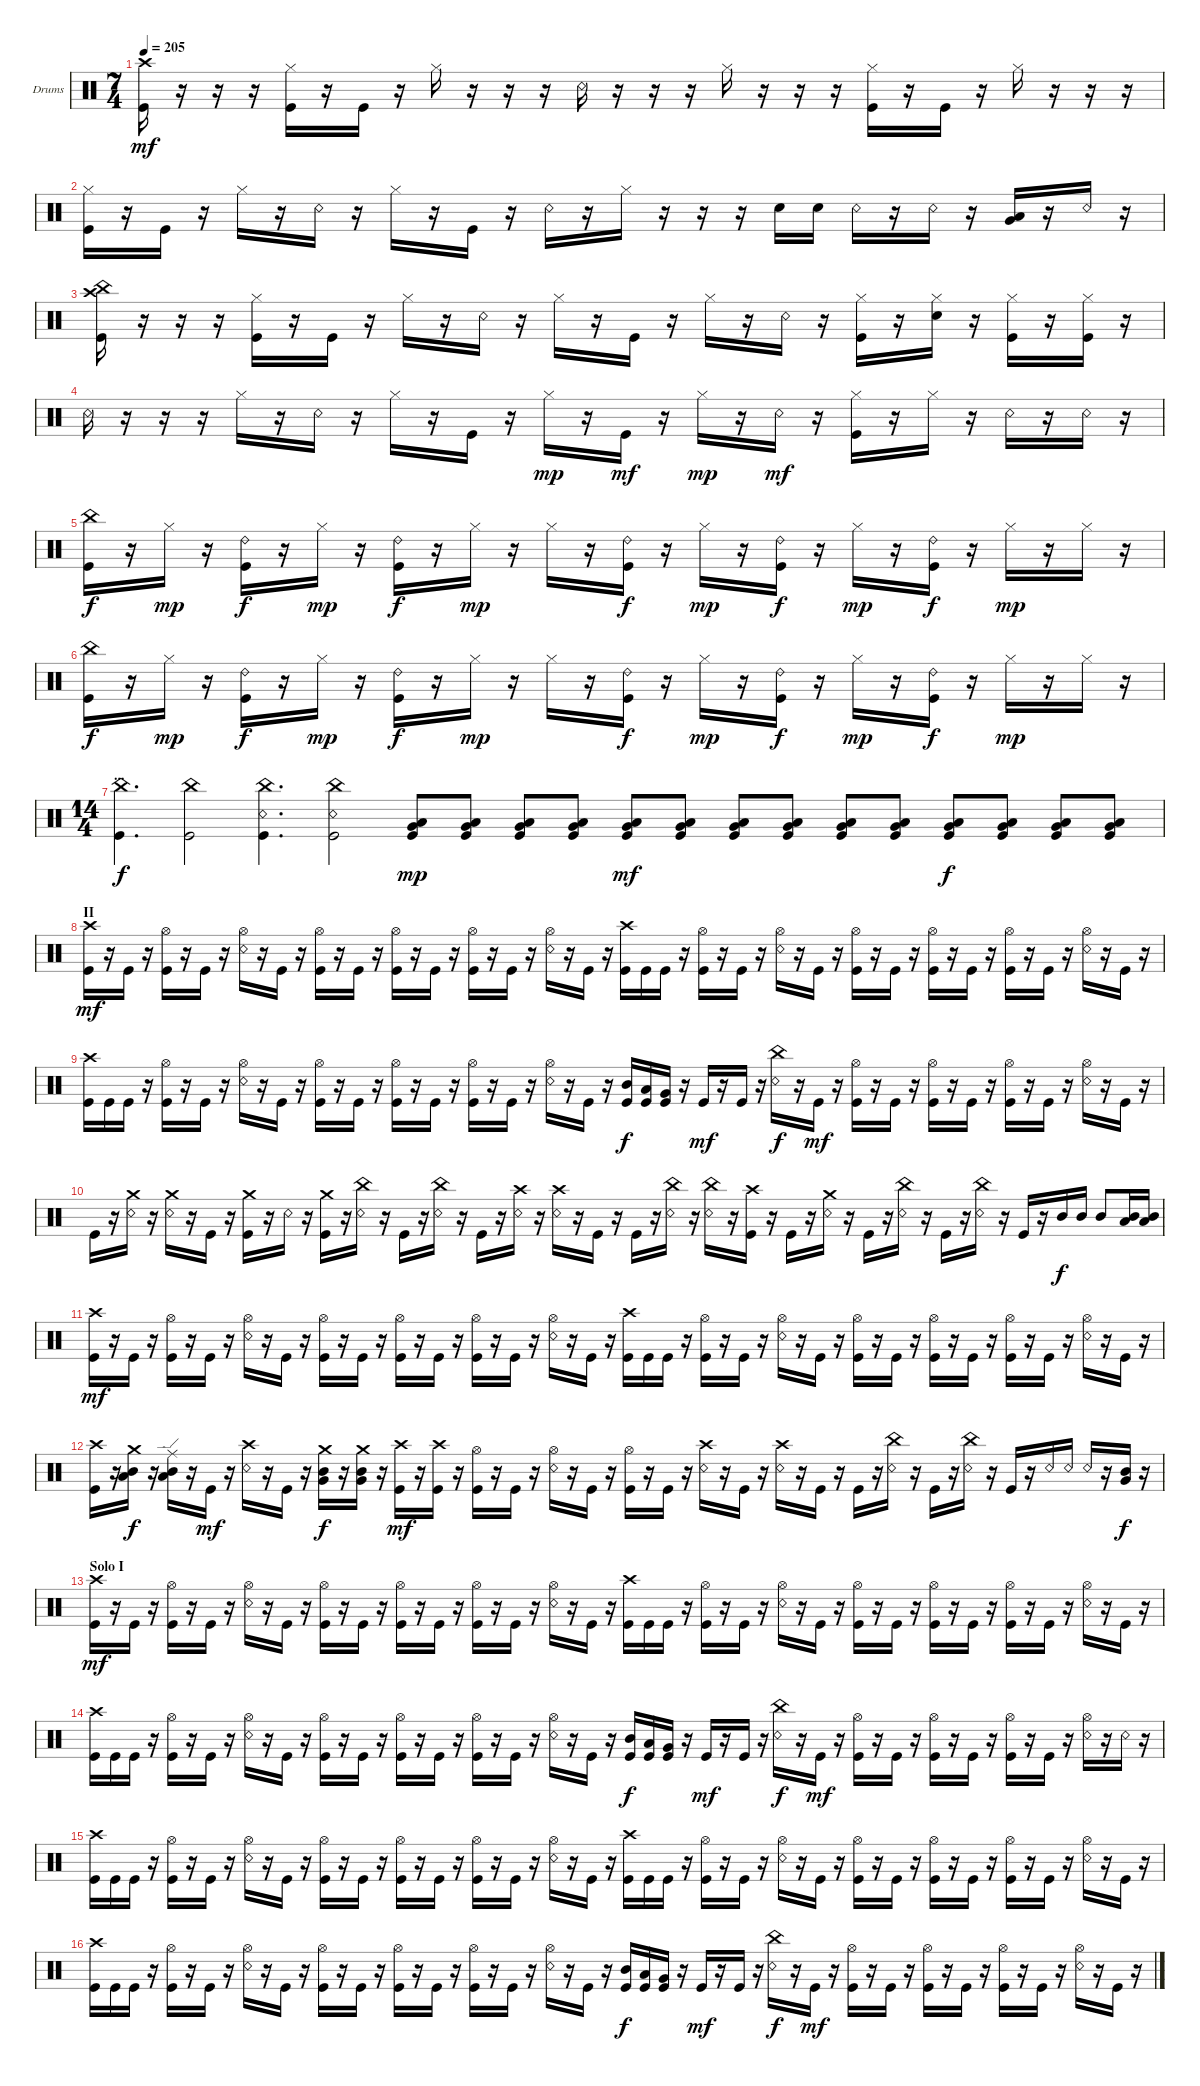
\defaultSystemsLayout 4
\bracketExtendMode groupsimilarinstruments
\firstSystemTrackNameOrientation horizontal
\otherSystemsTrackNameOrientation horizontal
\track ("Drumkit" "Drums") {instrument percussion}
\staff {score}
\articulation defaults
\ts (7 4)
\tempo 205
\clef neutral
\scale
0.487691
\ks c
("Kick (hit)" "Crash high (hit)").16{dy mf} r.16 r.16 r.16 ("Kick (hit)" "Hi-Hat (closed)").16 r.16 "Kick (hit)".16 r.16 "Hi-Hat (closed)".16 r.16 r.16 r.16 "Snare (rim shot)".16 r.16 r.16 r.16 "Hi-Hat (closed)".16 r.16 r.16 r.16 ("Kick (hit)" "Hi-Hat (closed)").16 r.16 "Kick (hit)".16 r.16 "Hi-Hat (closed)".16 r.16 r.16 r.16 |
("Kick (hit)" "Hi-Hat (closed)").16 r.16 "Kick (hit)".16 r.16 "Hi-Hat (closed)".16 r.16 "Snare (rim shot)".16 r.16 "Hi-Hat (closed)".16 r.16 "Kick (hit)".16 r.16 "Snare (rim shot)".16 r.16 "Hi-Hat (closed)".16 r.16 r.16 r.16 "Snare (hit) 2".16 "Snare (hit) 2".16 "Snare (rim shot)".16 r.16 "Snare (rim shot)".16 r.16 ("Very Low Tom (hit)" "Low Tom (hit)").16 r.16 "Snare (rim shot)".16 r.16 |
("Kick (hit)" "China (hit)" "Crash high (hit)").16 r.16 r.16 r.16 ("Hi-Hat (closed)" "Kick (hit)").16 r.16 "Kick (hit)".16 r.16 "Hi-Hat (closed)".16 r.16 "Snare (rim shot)".16 r.16 "Hi-Hat (closed)".16 r.16 "Kick (hit)".16 r.16 "Hi-Hat (closed)".16 r.16 "Snare (rim shot)".16 r.16 ("Kick (hit)" "Hi-Hat (closed)").16 r.16 ("Hi-Hat (closed)" "Snare (hit) 2").16 r.16 ("Kick (hit)" "Hi-Hat (closed)").16 r.16 ("Kick (hit)" "Hi-Hat (closed)").16 r.16 |
"Snare (rim shot)".16 r.16 r.16 r.16 "Hi-Hat (closed)".16 r.16 "Snare (rim shot)".16 r.16 "Hi-Hat (closed)".16 r.16 "Kick (hit)".16 r.16 "Hi-Hat (closed)".16{dy mp} r.16 "Kick (hit)".16{dy mf} r.16 "Hi-Hat (closed)".16{dy mp} r.16 "Snare (rim shot)".16{dy mf} r.16 ("Kick (hit)" "Hi-Hat (closed)").16 r.16 "Hi-Hat (closed)".16 r.16 "Snare (rim shot)".16 r.16 "Snare (rim shot)".16 r.16 |
("China (hit)" "Kick (hit)").16{dy f} r.16 "Hi-Hat (closed)".16{dy mp} r.16 ("Kick (hit)" "Ride (bell) 2").16{dy f} r.16 "Hi-Hat (closed)".16{dy mp} r.16 ("Kick (hit)" "Ride (bell) 2").16{dy f} r.16 "Hi-Hat (closed)".16{dy mp} r.16 "Hi-Hat (closed)".16 r.16 ("Kick (hit)" "Ride (bell) 2").16{dy f} r.16 "Hi-Hat (closed)".16{dy mp} r.16 ("Kick (hit)" "Ride (bell) 2").16{dy f} r.16 "Hi-Hat (closed)".16{dy mp} r.16 ("Kick (hit)" "Ride (bell) 2").16{dy f} r.16 "Hi-Hat (closed)".16{dy mp} r.16 "Hi-Hat (closed)".16 r.16 |
("China (hit)" "Kick (hit)").16{dy f} r.16 "Hi-Hat (closed)".16{dy mp} r.16 ("Kick (hit)" "Ride (bell) 2").16{dy f} r.16 "Hi-Hat (closed)".16{dy mp} r.16 ("Kick (hit)" "Ride (bell) 2").16{dy f} r.16 "Hi-Hat (closed)".16{dy mp} r.16 "Hi-Hat (closed)".16 r.16 ("Kick (hit)" "Ride (bell) 2").16{dy f} r.16 "Hi-Hat (closed)".16{dy mp} r.16 ("Kick (hit)" "Ride (bell) 2").16{dy f} r.16 "Hi-Hat (closed)".16{dy mp} r.16 ("Kick (hit)" "Ride (bell) 2").16{dy f} r.16 "Hi-Hat (closed)".16{dy mp} r.16 "Hi-Hat (closed)".16 r.16 |
\ts (14 4)
\section ("" "...")
("Kick (hit)" "China (hit)").4{d dy f} ("Kick (hit)" "China (hit)").2 ("Kick (hit)" "Snare (rim shot)" "China (hit)").4{d} ("Kick (hit)" "Snare (rim shot)" "China (hit)").2 ("Kick (hit)" "Low Tom (hit)" "Very Low Tom (hit)").8{dy mp} ("Kick (hit)" "Low Tom (hit)" "Very Low Tom (hit)").8 ("Kick (hit)" "Very Low Tom (hit)" "Low Tom (hit)").8 ("Kick (hit)" "Low Tom (hit)" "Very Low Tom (hit)").8 ("Kick (hit)" "Very Low Tom (hit)" "Low Tom (hit)").8{dy mf} ("Kick (hit)" "Low Tom (hit)" "Very Low Tom (hit)").8 ("Kick (hit)" "Very Low Tom (hit)" "Low Tom (hit)").8 ("Kick (hit)" "Low Tom (hit)" "Very Low Tom (hit)").8 ("Kick (hit)" "Very Low Tom (hit)" "Low Tom (hit)").8 ("Kick (hit)" "Low Tom (hit)" "Very Low Tom (hit)").8 ("Kick (hit)" "Very Low Tom (hit)" "Low Tom (hit)").8{dy f} ("Kick (hit)" "Low Tom (hit)" "Very Low Tom (hit)").8 ("Kick (hit)" "Very Low Tom (hit)" "Low Tom (hit)").8 ("Kick (hit)" "Low Tom (hit)" "Very Low Tom (hit)").8 |
\section ("" "II")
("Crash high (hit)" "Kick (hit)").16{dy mf} r.16 "Kick (hit)".16 r.16 ("Kick (hit)" "Hi-Hat (open)").16 r.16 "Kick (hit)".16 r.16 ("Snare (rim shot)" "Hi-Hat (open)").16 r.16 "Kick (hit)".16 r.16 ("Kick (hit)" "Hi-Hat (open)").16 r.16 "Kick (hit)".16 r.16 ("Kick (hit)" "Hi-Hat (open)").16 r.16 "Kick (hit)".16 r.16 ("Kick (hit)" "Hi-Hat (open)").16 r.16 "Kick (hit)".16 r.16 ("Snare (rim shot)" "Hi-Hat (open)").16 r.16 "Kick (hit)".16 r.16 ("Kick (hit)" "Crash high (hit)").16 "Kick (hit)".16 "Kick (hit)".16 r.16 ("Kick (hit)" "Hi-Hat (open)").16 r.16 "Kick (hit)".16 r.16 ("Snare (rim shot)" "Hi-Hat (open)").16 r.16 "Kick (hit)".16 r.16 ("Kick (hit)" "Hi-Hat (open)").16 r.16 "Kick (hit)".16 r.16 ("Kick (hit)" "Hi-Hat (open)").16 r.16 "Kick (hit)".16 r.16 ("Kick (hit)" "Hi-Hat (open)").16 r.16 "Kick (hit)".16 r.16 ("Snare (rim shot)" "Hi-Hat (open)").16 r.16 "Kick (hit)".16 r.16 |
("Kick (hit)" "Crash high (hit)").16 "Kick (hit)".16 "Kick (hit)".16 r.16 ("Kick (hit)" "Hi-Hat (open)").16 r.16 "Kick (hit)".16 r.16 ("Snare (rim shot)" "Hi-Hat (open)").16 r.16 "Kick (hit)".16 r.16 ("Kick (hit)" "Hi-Hat (open)").16 r.16 "Kick (hit)".16 r.16 ("Kick (hit)" "Hi-Hat (open)").16 r.16 "Kick (hit)".16 r.16 ("Kick (hit)" "Hi-Hat (open)").16 r.16 "Kick (hit)".16 r.16 ("Snare (rim shot)" "Hi-Hat (open)").16 r.16 "Kick (hit)".16 r.16 ("Kick (hit)" "Mid Tom (hit)").16{dy f} ("Kick (hit)" "Low Tom (hit)").16 ("Kick (hit)" "Very Low Tom (hit)").16 r.16 "Kick (hit)".16{dy mf} r.16 "Kick (hit)".16 r.16 ("Snare (rim shot)" "China (hit)").16{dy f} r.16 "Kick (hit)".16{dy mf} r.16 ("Kick (hit)" "Hi-Hat (open)").16 r.16 "Kick (hit)".16 r.16 ("Kick (hit)" "Hi-Hat (open)").16 r.16 "Kick (hit)".16 r.16 ("Kick (hit)" "Hi-Hat (open)").16 r.16 "Kick (hit)".16 r.16 ("Snare (rim shot)" "Hi-Hat (open)").16 r.16 "Kick (hit)".16 r.16 |
"Kick (hit)".16 r.16 ("Snare (rim shot)" "Crash medium (hit)").16 r.16 ("Snare (rim shot)" "Crash medium (hit)").16 r.16 "Kick (hit)".16 r.16 ("Kick (hit)" "Crash medium (hit)").16 r.16 "Snare (rim shot)".16 r.16 ("Kick (hit)" "Crash medium (hit)").16 r.16 ("Snare (rim shot)" "China (hit)").16 r.16 "Kick (hit)".16 r.16 ("Snare (rim shot)" "China (hit)").16 r.16 "Kick (hit)".16 r.16 ("Snare (rim shot)" "Crash high (hit)").16 r.16 ("Snare (rim shot)" "Crash high (hit)").16 r.16 "Kick (hit)".16 r.16 "Kick (hit)".16 r.16 ("Snare (rim shot)" "China (hit)").16 r.16 ("Snare (rim shot)" "China (hit)").16 r.16 ("Kick (hit)" "Crash high (hit)").16 r.16 "Kick (hit)".16 r.16 ("Snare (rim shot)" "Crash medium (hit)").16 r.16 "Kick (hit)".16 r.16 ("Snare (rim shot)" "China (hit)").16 r.16 "Kick (hit)".16 r.16 ("Snare (rim shot)" "China (hit)").16 r.16 "Kick (hit)".16 r.16 "Mid Tom (hit)".16{dy f} "Mid Tom (hit)".16 "Mid Tom (hit)".8 ("Mid Tom (hit)" "Low Tom (hit)").16 ("Low Tom (hit)" "Mid Tom (hit)").16 |
("Crash high (hit)" "Kick (hit)").16{dy mf} r.16 "Kick (hit)".16 r.16 ("Kick (hit)" "Hi-Hat (open)").16 r.16 "Kick (hit)".16 r.16 ("Snare (rim shot)" "Hi-Hat (open)").16 r.16 "Kick (hit)".16 r.16 ("Kick (hit)" "Hi-Hat (open)").16 r.16 "Kick (hit)".16 r.16 ("Kick (hit)" "Hi-Hat (open)").16 r.16 "Kick (hit)".16 r.16 ("Kick (hit)" "Hi-Hat (open)").16 r.16 "Kick (hit)".16 r.16 ("Snare (rim shot)" "Hi-Hat (open)").16 r.16 "Kick (hit)".16 r.16 ("Kick (hit)" "Crash high (hit)").16 "Kick (hit)".16 "Kick (hit)".16 r.16 ("Kick (hit)" "Hi-Hat (open)").16 r.16 "Kick (hit)".16 r.16 ("Snare (rim shot)" "Hi-Hat (open)").16 r.16 "Kick (hit)".16 r.16 ("Kick (hit)" "Hi-Hat (open)").16 r.16 "Kick (hit)".16 r.16 ("Kick (hit)" "Hi-Hat (open)").16 r.16 "Kick (hit)".16 r.16 ("Kick (hit)" "Hi-Hat (open)").16 r.16 "Kick (hit)".16 r.16 ("Snare (rim shot)" "Hi-Hat (open)").16 r.16 "Kick (hit)".16 r.16 |
("Kick (hit)" "Crash high (hit)").16 r.16 ("Mid Tom (hit)" "Low Tom (hit)" "Crash medium (hit)").16{dy f} r.16 ("Mid Tom (hit)" "Low Tom (hit)" "Ride (edge)").16 r.16 "Kick (hit)".16{dy mf} r.16 ("Snare (rim shot)" "Crash high (hit)").16 r.16 "Kick (hit)".16 r.16 ("Mid Tom (hit)" "Very Low Tom (hit)" "Crash medium (hit)").16{dy f} r.16 ("Very Low Tom (hit)" "Mid Tom (hit)" "Crash medium (hit)").16 r.16 ("Kick (hit)" "Crash high (hit)").16{dy mf} r.16 ("Kick (hit)" "Crash high (hit)").16 r.16 ("Kick (hit)" "Hi-Hat (open)").16 r.16 "Kick (hit)".16 r.16 ("Snare (rim shot)" "Hi-Hat (open)").16 r.16 "Kick (hit)".16 r.16 ("Kick (hit)" "Hi-Hat (open)").16 r.16 "Kick (hit)".16 r.16 ("Snare (rim shot)" "Crash high (hit)").16 r.16 "Kick (hit)".16 r.16 ("Snare (rim shot)" "Crash high (hit)").16 r.16 "Kick (hit)".16 r.16 "Kick (hit)".16 r.16 ("Snare (rim shot)" "China (hit)").16 r.16 "Kick (hit)".16 r.16 ("Snare (rim shot)" "China (hit)").16 r.16 "Kick (hit)".16 r.16 "Snare (rim shot)".16 "Snare (rim shot)".16 "Snare (rim shot)".16 r.16 ("Mid Tom (hit)" "Very Low Tom (hit)").16{dy f} r.16 |
\section ("" "Solo I")
("Crash high (hit)" "Kick (hit)").16{dy mf} r.16 "Kick (hit)".16 r.16 ("Kick (hit)" "Hi-Hat (open)").16 r.16 "Kick (hit)".16 r.16 ("Snare (rim shot)" "Hi-Hat (open)").16 r.16 "Kick (hit)".16 r.16 ("Kick (hit)" "Hi-Hat (open)").16 r.16 "Kick (hit)".16 r.16 ("Kick (hit)" "Hi-Hat (open)").16 r.16 "Kick (hit)".16 r.16 ("Kick (hit)" "Hi-Hat (open)").16 r.16 "Kick (hit)".16 r.16 ("Snare (rim shot)" "Hi-Hat (open)").16 r.16 "Kick (hit)".16 r.16 ("Kick (hit)" "Crash high (hit)").16 "Kick (hit)".16 "Kick (hit)".16 r.16 ("Kick (hit)" "Hi-Hat (open)").16 r.16 "Kick (hit)".16 r.16 ("Snare (rim shot)" "Hi-Hat (open)").16 r.16 "Kick (hit)".16 r.16 ("Kick (hit)" "Hi-Hat (open)").16 r.16 "Kick (hit)".16 r.16 ("Kick (hit)" "Hi-Hat (open)").16 r.16 "Kick (hit)".16 r.16 ("Kick (hit)" "Hi-Hat (open)").16 r.16 "Kick (hit)".16 r.16 ("Snare (rim shot)" "Hi-Hat (open)").16 r.16 "Kick (hit)".16 r.16 |
("Kick (hit)" "Crash high (hit)").16 "Kick (hit)".16 "Kick (hit)".16 r.16 ("Kick (hit)" "Hi-Hat (open)").16 r.16 "Kick (hit)".16 r.16 ("Snare (rim shot)" "Hi-Hat (open)").16 r.16 "Kick (hit)".16 r.16 ("Kick (hit)" "Hi-Hat (open)").16 r.16 "Kick (hit)".16 r.16 ("Kick (hit)" "Hi-Hat (open)").16 r.16 "Kick (hit)".16 r.16 ("Kick (hit)" "Hi-Hat (open)").16 r.16 "Kick (hit)".16 r.16 ("Snare (rim shot)" "Hi-Hat (open)").16 r.16 "Kick (hit)".16 r.16 ("Kick (hit)" "Mid Tom (hit)").16{dy f} ("Kick (hit)" "Low Tom (hit)").16 ("Kick (hit)" "Very Low Tom (hit)").16 r.16 "Kick (hit)".16{dy mf} r.16 "Kick (hit)".16 r.16 ("Snare (rim shot)" "China (hit)").16{dy f} r.16 "Kick (hit)".16{dy mf} r.16 ("Kick (hit)" "Hi-Hat (open)").16 r.16 "Kick (hit)".16 r.16 ("Kick (hit)" "Hi-Hat (open)").16 r.16 "Kick (hit)".16 r.16 ("Kick (hit)" "Hi-Hat (open)").16 r.16 "Kick (hit)".16 r.16 ("Snare (rim shot)" "Hi-Hat (open)").16 r.16 "Snare (rim shot)".16 r.16 |
("Kick (hit)" "Crash high (hit)").16 "Kick (hit)".16 "Kick (hit)".16 r.16 ("Kick (hit)" "Hi-Hat (open)").16 r.16 "Kick (hit)".16 r.16 ("Snare (rim shot)" "Hi-Hat (open)").16 r.16 "Kick (hit)".16 r.16 ("Kick (hit)" "Hi-Hat (open)").16 r.16 "Kick (hit)".16 r.16 ("Kick (hit)" "Hi-Hat (open)").16 r.16 "Kick (hit)".16 r.16 ("Kick (hit)" "Hi-Hat (open)").16 r.16 "Kick (hit)".16 r.16 ("Snare (rim shot)" "Hi-Hat (open)").16 r.16 "Kick (hit)".16 r.16 ("Kick (hit)" "Crash high (hit)").16 "Kick (hit)".16 "Kick (hit)".16 r.16 ("Kick (hit)" "Hi-Hat (open)").16 r.16 "Kick (hit)".16 r.16 ("Snare (rim shot)" "Hi-Hat (open)").16 r.16 "Kick (hit)".16 r.16 ("Kick (hit)" "Hi-Hat (open)").16 r.16 "Kick (hit)".16 r.16 ("Kick (hit)" "Hi-Hat (open)").16 r.16 "Kick (hit)".16 r.16 ("Kick (hit)" "Hi-Hat (open)").16 r.16 "Kick (hit)".16 r.16 ("Snare (rim shot)" "Hi-Hat (open)").16 r.16 "Kick (hit)".16 r.16 |
("Kick (hit)" "Crash high (hit)").16 "Kick (hit)".16 "Kick (hit)".16 r.16 ("Kick (hit)" "Hi-Hat (open)").16 r.16 "Kick (hit)".16 r.16 ("Snare (rim shot)" "Hi-Hat (open)").16 r.16 "Kick (hit)".16 r.16 ("Kick (hit)" "Hi-Hat (open)").16 r.16 "Kick (hit)".16 r.16 ("Kick (hit)" "Hi-Hat (open)").16 r.16 "Kick (hit)".16 r.16 ("Kick (hit)" "Hi-Hat (open)").16 r.16 "Kick (hit)".16 r.16 ("Snare (rim shot)" "Hi-Hat (open)").16 r.16 "Kick (hit)".16 r.16 ("Kick (hit)" "Mid Tom (hit)").16{dy f} ("Kick (hit)" "Low Tom (hit)").16 ("Kick (hit)" "Very Low Tom (hit)").16 r.16 "Kick (hit)".16{dy mf} r.16 "Kick (hit)".16 r.16 ("Snare (rim shot)" "China (hit)").16{dy f} r.16 "Kick (hit)".16{dy mf} r.16 ("Kick (hit)" "Hi-Hat (open)").16 r.16 "Kick (hit)".16 r.16 ("Kick (hit)" "Hi-Hat (open)").16 r.16 "Kick (hit)".16 r.16 ("Kick (hit)" "Hi-Hat (open)").16 r.16 "Kick (hit)".16 r.16 ("Snare (rim shot)" "Hi-Hat (open)").16 r.16 "Kick (hit)".16 r.16
